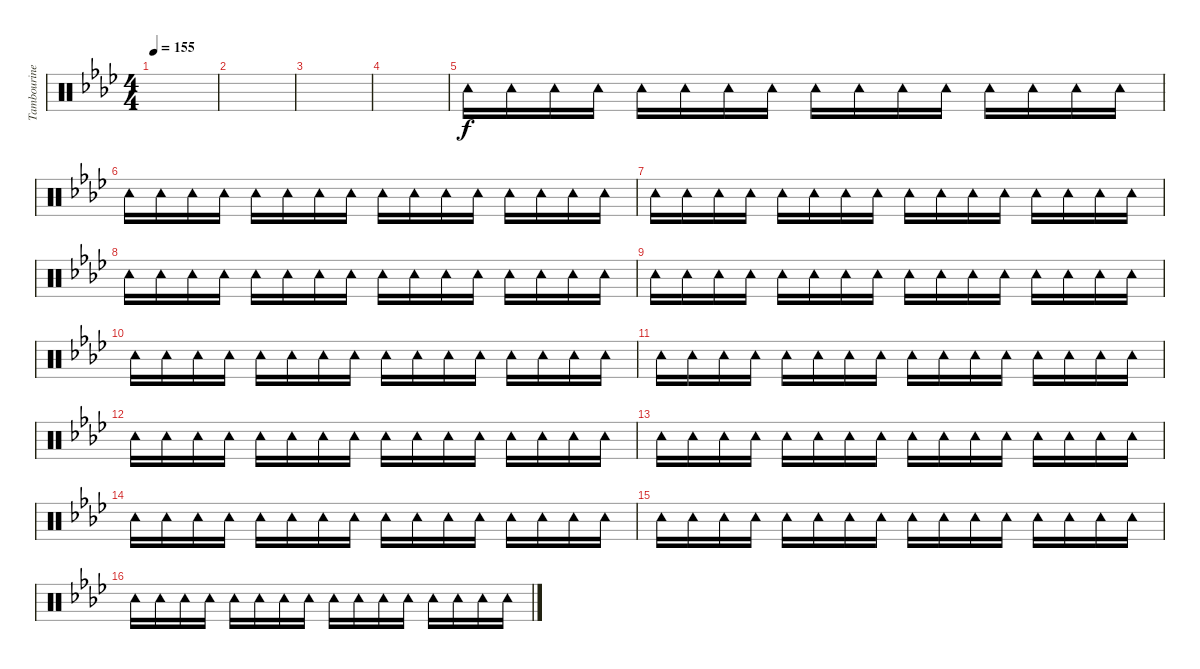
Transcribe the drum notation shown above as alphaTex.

\track ("Tambourine" "Tambourine") {instrument percussion}
\staff {score}
\articulation defaults
\ts (4 4)
\tempo 155
\clef neutral
\ks ab
|
|
|
|
"Tambourine (hit)".16 "Tambourine (hit)".16 "Tambourine (hit)".16 "Tambourine (hit)".16 "Tambourine (hit)".16 "Tambourine (hit)".16 "Tambourine (hit)".16 "Tambourine (hit)".16 "Tambourine (hit)".16 "Tambourine (hit)".16 "Tambourine (hit)".16 "Tambourine (hit)".16 "Tambourine (hit)".16 "Tambourine (hit)".16 "Tambourine (hit)".16 "Tambourine (hit)".16 |
"Tambourine (hit)".16 "Tambourine (hit)".16 "Tambourine (hit)".16 "Tambourine (hit)".16 "Tambourine (hit)".16 "Tambourine (hit)".16 "Tambourine (hit)".16 "Tambourine (hit)".16 "Tambourine (hit)".16 "Tambourine (hit)".16 "Tambourine (hit)".16 "Tambourine (hit)".16 "Tambourine (hit)".16 "Tambourine (hit)".16 "Tambourine (hit)".16 "Tambourine (hit)".16 |
"Tambourine (hit)".16 "Tambourine (hit)".16 "Tambourine (hit)".16 "Tambourine (hit)".16 "Tambourine (hit)".16 "Tambourine (hit)".16 "Tambourine (hit)".16 "Tambourine (hit)".16 "Tambourine (hit)".16 "Tambourine (hit)".16 "Tambourine (hit)".16 "Tambourine (hit)".16 "Tambourine (hit)".16 "Tambourine (hit)".16 "Tambourine (hit)".16 "Tambourine (hit)".16 |
"Tambourine (hit)".16 "Tambourine (hit)".16 "Tambourine (hit)".16 "Tambourine (hit)".16 "Tambourine (hit)".16 "Tambourine (hit)".16 "Tambourine (hit)".16 "Tambourine (hit)".16 "Tambourine (hit)".16 "Tambourine (hit)".16 "Tambourine (hit)".16 "Tambourine (hit)".16 "Tambourine (hit)".16 "Tambourine (hit)".16 "Tambourine (hit)".16 "Tambourine (hit)".16 |
"Tambourine (hit)".16 "Tambourine (hit)".16 "Tambourine (hit)".16 "Tambourine (hit)".16 "Tambourine (hit)".16 "Tambourine (hit)".16 "Tambourine (hit)".16 "Tambourine (hit)".16 "Tambourine (hit)".16 "Tambourine (hit)".16 "Tambourine (hit)".16 "Tambourine (hit)".16 "Tambourine (hit)".16 "Tambourine (hit)".16 "Tambourine (hit)".16 "Tambourine (hit)".16 |
"Tambourine (hit)".16 "Tambourine (hit)".16 "Tambourine (hit)".16 "Tambourine (hit)".16 "Tambourine (hit)".16 "Tambourine (hit)".16 "Tambourine (hit)".16 "Tambourine (hit)".16 "Tambourine (hit)".16 "Tambourine (hit)".16 "Tambourine (hit)".16 "Tambourine (hit)".16 "Tambourine (hit)".16 "Tambourine (hit)".16 "Tambourine (hit)".16 "Tambourine (hit)".16 |
"Tambourine (hit)".16 "Tambourine (hit)".16 "Tambourine (hit)".16 "Tambourine (hit)".16 "Tambourine (hit)".16 "Tambourine (hit)".16 "Tambourine (hit)".16 "Tambourine (hit)".16 "Tambourine (hit)".16 "Tambourine (hit)".16 "Tambourine (hit)".16 "Tambourine (hit)".16 "Tambourine (hit)".16 "Tambourine (hit)".16 "Tambourine (hit)".16 "Tambourine (hit)".16 |
"Tambourine (hit)".16 "Tambourine (hit)".16 "Tambourine (hit)".16 "Tambourine (hit)".16 "Tambourine (hit)".16 "Tambourine (hit)".16 "Tambourine (hit)".16 "Tambourine (hit)".16 "Tambourine (hit)".16 "Tambourine (hit)".16 "Tambourine (hit)".16 "Tambourine (hit)".16 "Tambourine (hit)".16 "Tambourine (hit)".16 "Tambourine (hit)".16 "Tambourine (hit)".16 |
"Tambourine (hit)".16 "Tambourine (hit)".16 "Tambourine (hit)".16 "Tambourine (hit)".16 "Tambourine (hit)".16 "Tambourine (hit)".16 "Tambourine (hit)".16 "Tambourine (hit)".16 "Tambourine (hit)".16 "Tambourine (hit)".16 "Tambourine (hit)".16 "Tambourine (hit)".16 "Tambourine (hit)".16 "Tambourine (hit)".16 "Tambourine (hit)".16 "Tambourine (hit)".16 |
"Tambourine (hit)".16 "Tambourine (hit)".16 "Tambourine (hit)".16 "Tambourine (hit)".16 "Tambourine (hit)".16 "Tambourine (hit)".16 "Tambourine (hit)".16 "Tambourine (hit)".16 "Tambourine (hit)".16 "Tambourine (hit)".16 "Tambourine (hit)".16 "Tambourine (hit)".16 "Tambourine (hit)".16 "Tambourine (hit)".16 "Tambourine (hit)".16 "Tambourine (hit)".16 |
"Tambourine (hit)".16 "Tambourine (hit)".16 "Tambourine (hit)".16 "Tambourine (hit)".16 "Tambourine (hit)".16 "Tambourine (hit)".16 "Tambourine (hit)".16 "Tambourine (hit)".16 "Tambourine (hit)".16 "Tambourine (hit)".16 "Tambourine (hit)".16 "Tambourine (hit)".16 "Tambourine (hit)".16 "Tambourine (hit)".16 "Tambourine (hit)".16 "Tambourine (hit)".16 |
"Tambourine (hit)".16 "Tambourine (hit)".16 "Tambourine (hit)".16 "Tambourine (hit)".16 "Tambourine (hit)".16 "Tambourine (hit)".16 "Tambourine (hit)".16 "Tambourine (hit)".16 "Tambourine (hit)".16 "Tambourine (hit)".16 "Tambourine (hit)".16 "Tambourine (hit)".16 "Tambourine (hit)".16 "Tambourine (hit)".16 "Tambourine (hit)".16 "Tambourine (hit)".16
